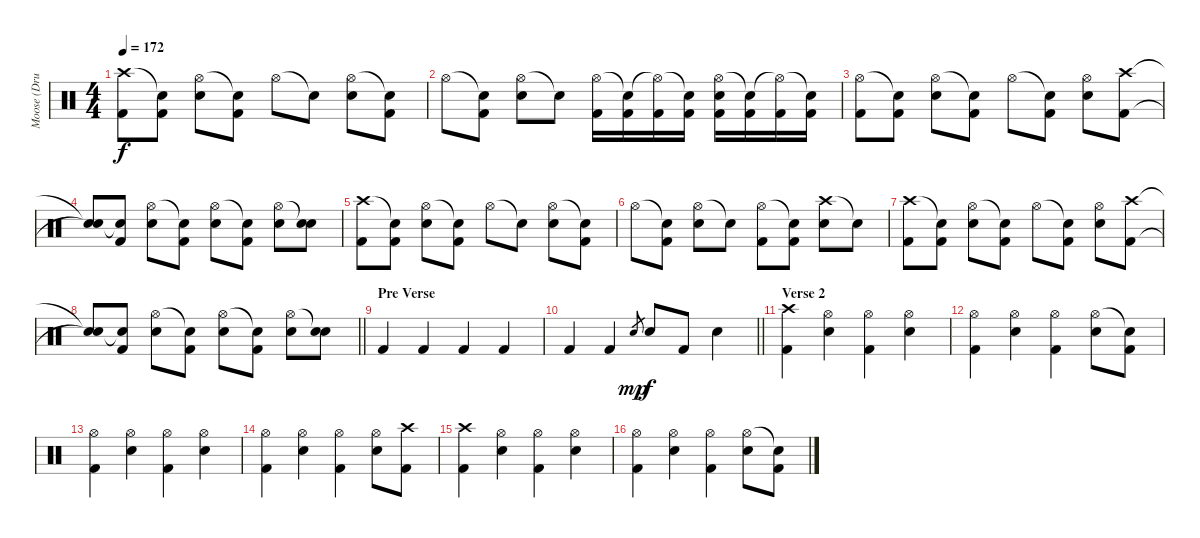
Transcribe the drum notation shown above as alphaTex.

\track ("Moose (Drums)" "Moose (Dru") {instrument percussion}
\staff {score}
\articulation defaults
\ts (4 4)
\tempo 172
\clef neutral
\ks c
("Crash high (hit)" "Kick (hit) 2").8{dy f} ("Snare (hit)"{t} "Kick (hit) 2").8 ("Hi-Hat (open)" "Electric Snare (hit)").8 ("Snare (hit)"{t} "Kick (hit) 2").8 "Hi-Hat (open)".8 "Snare (hit)"{t}.8 ("Hi-Hat (open)" "Electric Snare (hit)").8 ("Snare (hit)"{t} "Kick (hit) 2").8 |
"Hi-Hat (open)".8 ("Snare (hit)"{t} "Kick (hit) 2").8 ("Hi-Hat (open)" "Electric Snare (hit)").8 "Snare (hit)"{t}.8 ("Hi-Hat (open)" "Kick (hit) 2").16 ("Snare (hit)"{t} "Kick (hit) 2").16 ("Hi-Hat (open)"{t} "Kick (hit) 2").16 ("Snare (hit)"{t} "Kick (hit) 2").16 ("Hi-Hat (open)" "Electric Snare (hit)" "Kick (hit) 2").16 ("Snare (hit)"{t} "Kick (hit) 2").16 ("Hi-Hat (open)"{t} "Kick (hit) 2").16 ("Snare (hit)"{t} "Kick (hit) 2").16 |
("Hi-Hat (open)" "Kick (hit) 2").8 ("Snare (hit)"{t} "Kick (hit) 2").8 ("Hi-Hat (open)" "Electric Snare (hit)").8 ("Snare (hit)"{t} "Kick (hit) 2").8 "Hi-Hat (open)".8 ("Snare (hit)"{t} "Kick (hit) 2").8 ("Hi-Hat (open)" "Electric Snare (hit)").8 ("Crash high (hit)" "Kick (hit) 2").8 |
("Snare (hit)"{t} "Snare (hit)"{t}).8 ("Snare (hit)"{t} "Kick (hit) 2").8 ("Hi-Hat (open)" "Electric Snare (hit)").8 ("Snare (hit)"{t} "Kick (hit) 2").8 ("Hi-Hat (open)" "Electric Snare (hit)").8 ("Snare (hit)"{t} "Kick (hit) 2").8 ("Hi-Hat (open)" "Electric Snare (hit)").8 ("Snare (hit)"{t} "Electric Snare (hit)").8 |
("Crash high (hit)" "Kick (hit) 2").8 ("Snare (hit)"{t} "Kick (hit) 2").8 ("Hi-Hat (open)" "Electric Snare (hit)").8 ("Snare (hit)"{t} "Kick (hit) 2").8 "Hi-Hat (open)".8 "Snare (hit)"{t}.8 ("Hi-Hat (open)" "Electric Snare (hit)").8 ("Snare (hit)"{t} "Kick (hit) 2").8 |
"Hi-Hat (open)".8 ("Snare (hit)"{t} "Kick (hit) 2").8 ("Hi-Hat (open)" "Electric Snare (hit)").8 "Snare (hit)"{t}.8 ("Hi-Hat (open)" "Kick (hit) 2").8 ("Snare (hit)"{t} "Kick (hit) 2").8 ("Crash high (hit)" "Electric Snare (hit)").8 "Snare (hit)"{t}.8 |
("Crash high (hit)" "Kick (hit) 2").8 ("Snare (hit)"{t} "Kick (hit) 2").8 ("Hi-Hat (open)" "Electric Snare (hit)").8 ("Snare (hit)"{t} "Kick (hit) 2").8 "Hi-Hat (open)".8 ("Snare (hit)"{t} "Kick (hit) 2").8 ("Hi-Hat (open)" "Electric Snare (hit)").8 ("Crash high (hit)" "Kick (hit) 2").8 |
\barLineRight lightlight
("Snare (hit)"{t} "Snare (hit)"{t}).8 ("Snare (hit)"{t} "Kick (hit) 2").8 ("Hi-Hat (open)" "Electric Snare (hit)").8 ("Snare (hit)"{t} "Kick (hit) 2").8 ("Hi-Hat (open)" "Electric Snare (hit)").8 ("Snare (hit)"{t} "Kick (hit) 2").8 ("Hi-Hat (open)" "Electric Snare (hit)").8 ("Snare (hit)"{t} "Electric Snare (hit)").8 |
\section ("" "Pre Verse")
"Kick (hit) 2".4 "Kick (hit) 2".4 "Kick (hit) 2".4 "Kick (hit) 2".4 |
\barLineRight lightlight "Kick (hit) 2".4 "Kick (hit) 2".4 "Electric Snare (hit)".8{gr dy mp} "Electric Snare (hit)".8{dy f} "Kick (hit) 2".8 "Electric Snare (hit)".4
|
\section ("" "Verse 2")
("Crash high (hit)" "Kick (hit) 2").4 ("Hi-Hat (open)" "Electric Snare (hit)").4 ("Hi-Hat (open)" "Kick (hit) 2").4 ("Hi-Hat (open)" "Electric Snare (hit)").4 |
("Hi-Hat (open)" "Kick (hit) 2").4 ("Hi-Hat (open)" "Electric Snare (hit)").4 ("Hi-Hat (open)" "Kick (hit) 2").4 ("Hi-Hat (open)" "Electric Snare (hit)").8 ("Snare (hit)"{t} "Kick (hit) 2").8 |
("Hi-Hat (open)" "Kick (hit) 2").4 ("Hi-Hat (open)" "Electric Snare (hit)").4 ("Hi-Hat (open)" "Kick (hit) 2").4 ("Hi-Hat (open)" "Electric Snare (hit)").4 |
("Hi-Hat (open)" "Kick (hit) 2").4 ("Hi-Hat (open)" "Electric Snare (hit)").4 ("Hi-Hat (open)" "Kick (hit) 2").4 ("Hi-Hat (open)" "Electric Snare (hit)").8 ("Crash high (hit)" "Kick (hit) 2").8 |
("Crash high (hit)" "Kick (hit) 2").4 ("Hi-Hat (open)" "Electric Snare (hit)").4 ("Hi-Hat (open)" "Kick (hit) 2").4 ("Hi-Hat (open)" "Electric Snare (hit)").4 |
("Hi-Hat (open)" "Kick (hit) 2").4 ("Hi-Hat (open)" "Electric Snare (hit)").4 ("Hi-Hat (open)" "Kick (hit) 2").4 ("Hi-Hat (open)" "Electric Snare (hit)").8 ("Snare (hit)"{t} "Kick (hit) 2").8
